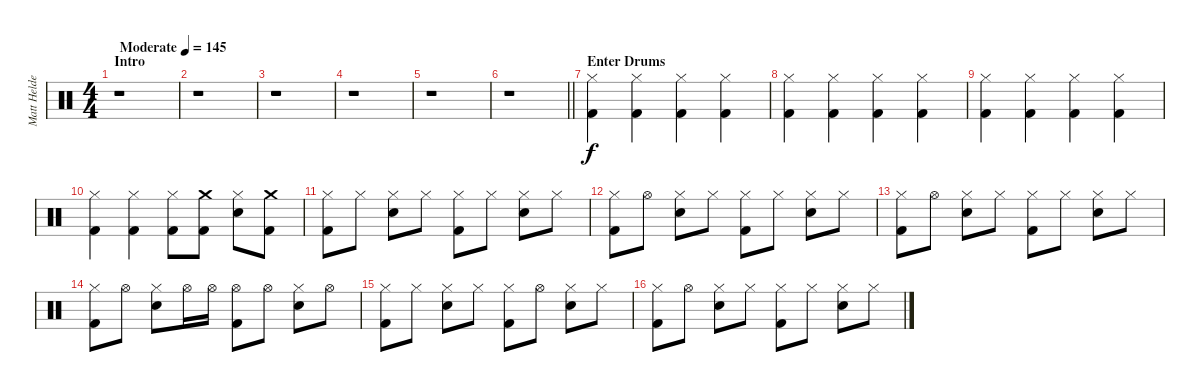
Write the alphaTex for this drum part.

\track ("Matt Helders" "Matt Helde") {instrument percussion}
\staff {score}
\articulation defaults
\ts (4 4)
\section ("" "Intro")
\tempo (145 "Moderate")
\clef neutral
\ks c
r.1{dy f} |
r.1 |
r.1 |
r.1 |
r.1 |
\barLineRight lightlight
r.1 |
\section ("" "Enter Drums")
("Kick (hit) 2" "Hi-Hat (closed)").4 ("Kick (hit) 2" "Hi-Hat (closed)").4 ("Kick (hit) 2" "Hi-Hat (closed)").4 ("Kick (hit) 2" "Hi-Hat (closed)").4 |
("Kick (hit) 2" "Hi-Hat (closed)").4 ("Kick (hit) 2" "Hi-Hat (closed)").4 ("Kick (hit) 2" "Hi-Hat (closed)").4 ("Kick (hit) 2" "Hi-Hat (closed)").4 |
("Kick (hit) 2" "Hi-Hat (closed)").4 ("Kick (hit) 2" "Hi-Hat (closed)").4 ("Kick (hit) 2" "Hi-Hat (closed)").4 ("Kick (hit) 2" "Hi-Hat (closed)").4 |
("Kick (hit) 2" "Hi-Hat (closed)").4 ("Kick (hit) 2" "Hi-Hat (closed)").4 ("Kick (hit) 2" "Hi-Hat (closed)").8 ("Kick (hit) 2" "Crash medium (hit)").8 ("Electric Snare (hit)" "Hi-Hat (closed)").8 ("Kick (hit) 2" "Crash medium (hit)").8 |
("Kick (hit) 2" "Hi-Hat (closed)").8 "Hi-Hat (closed)".8 ("Electric Snare (hit)" "Hi-Hat (closed)").8 "Hi-Hat (closed)".8 ("Kick (hit) 2" "Hi-Hat (closed)").8 "Hi-Hat (closed)".8 ("Electric Snare (hit)" "Hi-Hat (closed)").8 "Hi-Hat (closed)".8 |
("Kick (hit) 2" "Hi-Hat (closed)").8 "Hi-Hat (open)".8 ("Electric Snare (hit)" "Hi-Hat (closed)").8 "Hi-Hat (closed)".8 ("Kick (hit) 2" "Hi-Hat (closed)").8 "Hi-Hat (closed)".8 ("Electric Snare (hit)" "Hi-Hat (closed)").8 "Hi-Hat (closed)".8 |
("Kick (hit) 2" "Hi-Hat (closed)").8 "Hi-Hat (open)".8 ("Electric Snare (hit)" "Hi-Hat (closed)").8 "Hi-Hat (closed)".8 ("Kick (hit) 2" "Hi-Hat (closed)").8 "Hi-Hat (closed)".8 ("Electric Snare (hit)" "Hi-Hat (closed)").8 "Hi-Hat (closed)".8 |
("Kick (hit) 2" "Hi-Hat (closed)").8 "Hi-Hat (open)".8 ("Electric Snare (hit)" "Hi-Hat (closed)").8 "Hi-Hat (open)".16 "Hi-Hat (open)".16 ("Kick (hit) 2" "Hi-Hat (open)").8 "Hi-Hat (open)".8 ("Electric Snare (hit)" "Hi-Hat (closed)").8 "Hi-Hat (open)".8 |
("Kick (hit) 2" "Hi-Hat (closed)").8 "Hi-Hat (closed)".8 ("Electric Snare (hit)" "Hi-Hat (closed)").8 "Hi-Hat (closed)".8 ("Kick (hit) 2" "Hi-Hat (closed)").8 "Hi-Hat (open)".8 ("Electric Snare (hit)" "Hi-Hat (closed)").8 "Hi-Hat (closed)".8 |
("Kick (hit) 2" "Hi-Hat (closed)").8 "Hi-Hat (open)".8 ("Electric Snare (hit)" "Hi-Hat (closed)").8 "Hi-Hat (closed)".8 ("Kick (hit) 2" "Hi-Hat (closed)").8 "Hi-Hat (closed)".8 ("Electric Snare (hit)" "Hi-Hat (closed)").8 "Hi-Hat (closed)".8
